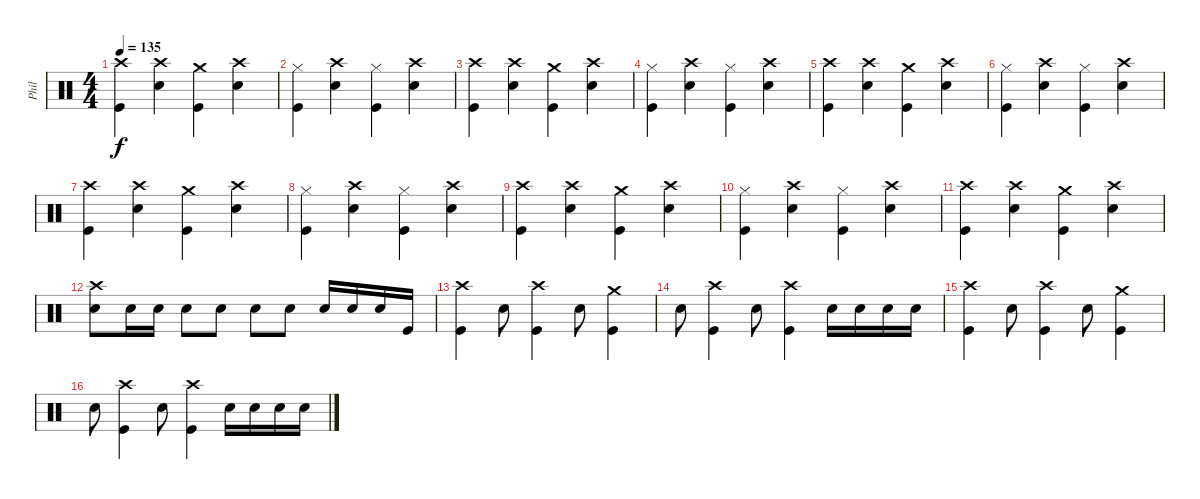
\track ("Phil" "Phil") {instrument percussion}
\staff {score}
\articulation defaults
\ts (4 4)
\tempo 135
\clef neutral
\ks c
("Kick (hit)" "Crash high (hit)").4{dy f} ("Crash high (hit)" "Snare (hit) 2").4 ("Kick (hit)" "Crash medium (hit)").4 ("Crash high (hit)" "Snare (hit) 2").4 |
("Kick (hit)" "Hi-Hat (closed)").4 ("Crash high (hit)" "Snare (hit) 2").4 ("Kick (hit)" "Hi-Hat (closed)").4 ("Snare (hit) 2" "Crash high (hit)").4 |
("Kick (hit)" "Crash high (hit)").4 ("Crash high (hit)" "Snare (hit) 2").4 ("Kick (hit)" "Crash medium (hit)").4 ("Crash high (hit)" "Snare (hit) 2").4 |
("Kick (hit)" "Hi-Hat (closed)").4 ("Crash high (hit)" "Snare (hit) 2").4 ("Kick (hit)" "Hi-Hat (closed)").4 ("Snare (hit) 2" "Crash high (hit)").4 |
("Kick (hit)" "Crash high (hit)").4 ("Crash high (hit)" "Snare (hit) 2").4 ("Kick (hit)" "Crash medium (hit)").4 ("Crash high (hit)" "Snare (hit) 2").4 |
("Kick (hit)" "Hi-Hat (closed)").4 ("Crash high (hit)" "Snare (hit) 2").4 ("Kick (hit)" "Hi-Hat (closed)").4 ("Snare (hit) 2" "Crash high (hit)").4 |
("Kick (hit)" "Crash high (hit)").4 ("Crash high (hit)" "Snare (hit) 2").4 ("Kick (hit)" "Crash medium (hit)").4 ("Crash high (hit)" "Snare (hit) 2").4 |
("Kick (hit)" "Hi-Hat (closed)").4 ("Crash high (hit)" "Snare (hit) 2").4 ("Kick (hit)" "Hi-Hat (closed)").4 ("Snare (hit) 2" "Crash high (hit)").4 |
("Kick (hit)" "Crash high (hit)").4 ("Crash high (hit)" "Snare (hit) 2").4 ("Kick (hit)" "Crash medium (hit)").4 ("Crash high (hit)" "Snare (hit) 2").4 |
("Kick (hit)" "Hi-Hat (closed)").4 ("Crash high (hit)" "Snare (hit) 2").4 ("Kick (hit)" "Hi-Hat (closed)").4 ("Snare (hit) 2" "Crash high (hit)").4 |
("Kick (hit)" "Crash high (hit)").4 ("Crash high (hit)" "Snare (hit) 2").4 ("Kick (hit)" "Crash medium (hit)").4 ("Crash high (hit)" "Snare (hit) 2").4 |
("Snare (hit) 2" "Crash high (hit)").8 "Snare (hit) 2".16 "Snare (hit) 2".16 "Snare (hit) 2".8 "Snare (hit) 2".8 "Snare (hit) 2".8 "Snare (hit) 2".8 "Snare (hit) 2".16 "Snare (hit) 2".16 "Snare (hit) 2".16 "Kick (hit)".16 |
("Kick (hit)" "Crash high (hit)").4 "Snare (hit) 2".8 ("Kick (hit)" "Crash high (hit)").4 "Snare (hit) 2".8 ("Crash medium (hit)" "Kick (hit)").4 |
"Snare (hit) 2".8 ("Kick (hit)" "Crash high (hit)").4 "Snare (hit) 2".8 ("Kick (hit)" "Crash high (hit)").4 "Snare (hit) 2".16 "Snare (hit) 2".16 "Snare (hit) 2".16 "Snare (hit) 2".16 |
("Kick (hit)" "Crash high (hit)").4 "Snare (hit) 2".8 ("Kick (hit)" "Crash high (hit)").4 "Snare (hit) 2".8 ("Crash medium (hit)" "Kick (hit)").4 |
"Snare (hit) 2".8 ("Kick (hit)" "Crash high (hit)").4 "Snare (hit) 2".8 ("Kick (hit)" "Crash high (hit)").4 "Snare (hit) 2".16 "Snare (hit) 2".16 "Snare (hit) 2".16 "Snare (hit) 2".16
